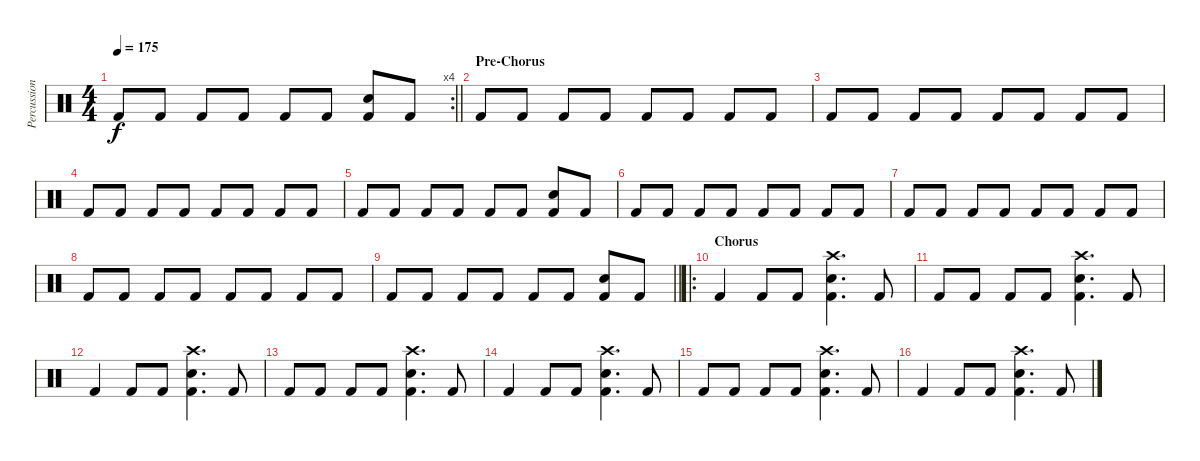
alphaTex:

\track ("Percussion" "Percussion") {instrument percussion}
\staff {score}
\articulation defaults
\rc 4
\ts (4 4)
\tempo 175
\clef neutral
\barLineRight lightlight
\ks c "Kick (hit) 2".8{dy f} "Kick (hit) 2".8 "Kick (hit) 2".8 "Kick (hit) 2".8 "Kick (hit) 2".8 "Kick (hit) 2".8
("Snare (hit) 2" "Kick (hit) 2").8 "Kick (hit) 2".8 |
\section ("" "Pre-Chorus")
"Kick (hit) 2".8 "Kick (hit) 2".8 "Kick (hit) 2".8 "Kick (hit) 2".8 "Kick (hit) 2".8 "Kick (hit) 2".8 "Kick (hit) 2".8 "Kick (hit) 2".8 |
"Kick (hit) 2".8 "Kick (hit) 2".8 "Kick (hit) 2".8 "Kick (hit) 2".8 "Kick (hit) 2".8 "Kick (hit) 2".8 "Kick (hit) 2".8 "Kick (hit) 2".8 |
"Kick (hit) 2".8 "Kick (hit) 2".8 "Kick (hit) 2".8 "Kick (hit) 2".8 "Kick (hit) 2".8 "Kick (hit) 2".8 "Kick (hit) 2".8 "Kick (hit) 2".8 |
"Kick (hit) 2".8 "Kick (hit) 2".8 "Kick (hit) 2".8 "Kick (hit) 2".8 "Kick (hit) 2".8 "Kick (hit) 2".8 ("Snare (hit) 2" "Kick (hit) 2").8 "Kick (hit) 2".8 |
"Kick (hit) 2".8 "Kick (hit) 2".8 "Kick (hit) 2".8 "Kick (hit) 2".8 "Kick (hit) 2".8 "Kick (hit) 2".8 "Kick (hit) 2".8 "Kick (hit) 2".8 |
"Kick (hit) 2".8 "Kick (hit) 2".8 "Kick (hit) 2".8 "Kick (hit) 2".8 "Kick (hit) 2".8 "Kick (hit) 2".8 "Kick (hit) 2".8 "Kick (hit) 2".8 |
"Kick (hit) 2".8 "Kick (hit) 2".8 "Kick (hit) 2".8 "Kick (hit) 2".8 "Kick (hit) 2".8 "Kick (hit) 2".8 "Kick (hit) 2".8 "Kick (hit) 2".8 |
\barLineRight lightlight "Kick (hit) 2".8 "Kick (hit) 2".8 "Kick (hit) 2".8 "Kick (hit) 2".8 "Kick (hit) 2".8 "Kick (hit) 2".8
("Snare (hit) 2" "Kick (hit) 2").8 "Kick (hit) 2".8 |
\ro
\section ("" "Chorus")
"Kick (hit) 2".4 "Kick (hit) 2".8 "Kick (hit) 2".8 ("Crash high (hit)" "Snare (hit) 2" "Kick (hit) 2").4{d} "Kick (hit) 2".8 |
"Kick (hit) 2".8 "Kick (hit) 2".8 "Kick (hit) 2".8 "Kick (hit) 2".8 ("Crash high (hit)" "Snare (hit) 2" "Kick (hit) 2").4{d} "Kick (hit) 2".8 |
"Kick (hit) 2".4 "Kick (hit) 2".8 "Kick (hit) 2".8 ("Crash high (hit)" "Snare (hit) 2" "Kick (hit) 2").4{d} "Kick (hit) 2".8 |
"Kick (hit) 2".8 "Kick (hit) 2".8 "Kick (hit) 2".8 "Kick (hit) 2".8 ("Crash high (hit)" "Snare (hit) 2" "Kick (hit) 2").4{d} "Kick (hit) 2".8 |
"Kick (hit) 2".4 "Kick (hit) 2".8 "Kick (hit) 2".8 ("Crash high (hit)" "Snare (hit) 2" "Kick (hit) 2").4{d} "Kick (hit) 2".8 |
"Kick (hit) 2".8 "Kick (hit) 2".8 "Kick (hit) 2".8 "Kick (hit) 2".8 ("Crash high (hit)" "Snare (hit) 2" "Kick (hit) 2").4{d} "Kick (hit) 2".8 |
"Kick (hit) 2".4 "Kick (hit) 2".8 "Kick (hit) 2".8 ("Crash high (hit)" "Snare (hit) 2" "Kick (hit) 2").4{d} "Kick (hit) 2".8
